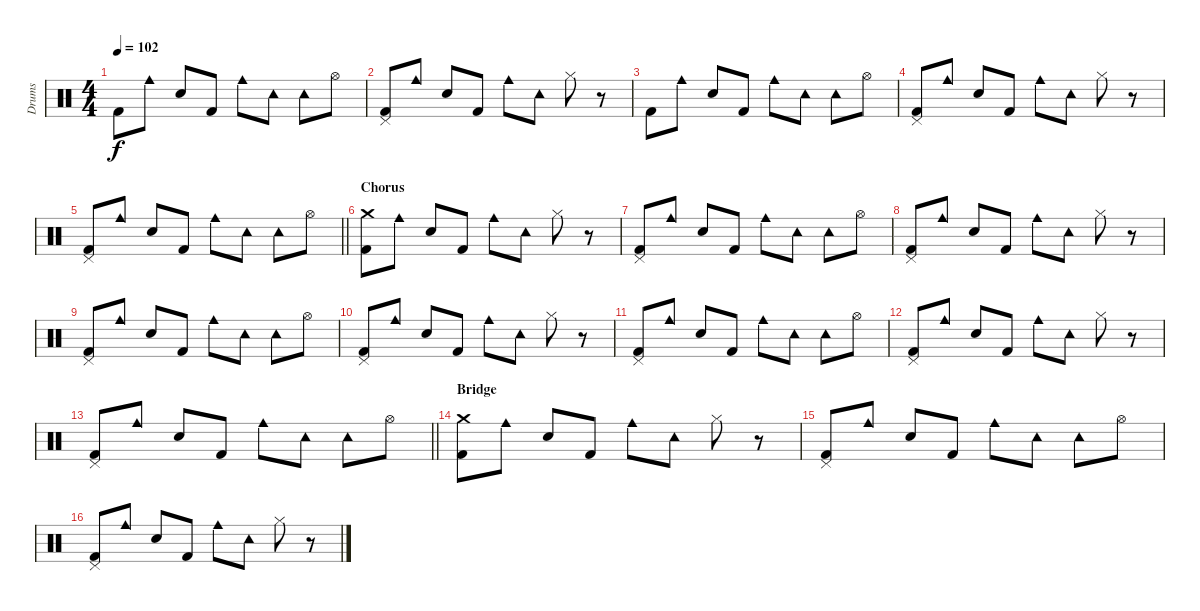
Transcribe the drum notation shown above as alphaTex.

\track ("Drums" "Drums") {instrument percussion}
\staff {score}
\articulation defaults
\ts (4 4)
\tempo 102
\clef neutral
\ks c "Kick (hit) 2".8{dy f} "Cowbell medium (hit)".8 "Electric Snare (hit)".8 "Kick (hit) 2".8 "Cowbell medium (hit)".8 "Tambourine (hit)".8 "Tambourine (hit)".8 "Hi-Hat (open)".8
|
("Pedal Hi-Hat (hit)" "Kick (hit) 2").8 "Cowbell medium (hit)".8 "Electric Snare (hit)".8 "Kick (hit) 2".8 "Cowbell medium (hit)".8 "Tambourine (hit)".8 "Hi-Hat (closed)".8 r.8 |
"Kick (hit) 2".8 "Cowbell medium (hit)".8 "Electric Snare (hit)".8 "Kick (hit) 2".8 "Cowbell medium (hit)".8 "Tambourine (hit)".8 "Tambourine (hit)".8 "Hi-Hat (open)".8 |
("Pedal Hi-Hat (hit)" "Kick (hit) 2").8 "Cowbell medium (hit)".8 "Electric Snare (hit)".8 "Kick (hit) 2".8 "Cowbell medium (hit)".8 "Tambourine (hit)".8 "Hi-Hat (closed)".8 r.8 |
\barLineRight lightlight
("Pedal Hi-Hat (hit)" "Kick (hit) 2").8 "Cowbell medium (hit)".8 "Electric Snare (hit)".8 "Kick (hit) 2".8 "Cowbell medium (hit)".8 "Tambourine (hit)".8 "Tambourine (hit)".8 "Hi-Hat (open)".8 |
\section ("" "Chorus")
("Crash medium (hit)" "Kick (hit) 2").8 "Cowbell medium (hit)".8 "Electric Snare (hit)".8 "Kick (hit) 2".8 "Cowbell medium (hit)".8 "Tambourine (hit)".8 "Hi-Hat (closed)".8 r.8 |
("Pedal Hi-Hat (hit)" "Kick (hit) 2").8 "Cowbell medium (hit)".8 "Electric Snare (hit)".8 "Kick (hit) 2".8 "Cowbell medium (hit)".8 "Tambourine (hit)".8 "Tambourine (hit)".8 "Hi-Hat (open)".8 |
("Pedal Hi-Hat (hit)" "Kick (hit) 2").8 "Cowbell medium (hit)".8 "Electric Snare (hit)".8 "Kick (hit) 2".8 "Cowbell medium (hit)".8 "Tambourine (hit)".8 "Hi-Hat (closed)".8 r.8 |
("Pedal Hi-Hat (hit)" "Kick (hit) 2").8 "Cowbell medium (hit)".8 "Electric Snare (hit)".8 "Kick (hit) 2".8 "Cowbell medium (hit)".8 "Tambourine (hit)".8 "Tambourine (hit)".8 "Hi-Hat (open)".8 |
("Pedal Hi-Hat (hit)" "Kick (hit) 2").8 "Cowbell medium (hit)".8 "Electric Snare (hit)".8 "Kick (hit) 2".8 "Cowbell medium (hit)".8 "Tambourine (hit)".8 "Hi-Hat (closed)".8 r.8 |
("Pedal Hi-Hat (hit)" "Kick (hit) 2").8 "Cowbell medium (hit)".8 "Electric Snare (hit)".8 "Kick (hit) 2".8 "Cowbell medium (hit)".8 "Tambourine (hit)".8 "Tambourine (hit)".8 "Hi-Hat (open)".8 |
("Pedal Hi-Hat (hit)" "Kick (hit) 2").8 "Cowbell medium (hit)".8 "Electric Snare (hit)".8 "Kick (hit) 2".8 "Cowbell medium (hit)".8 "Tambourine (hit)".8 "Hi-Hat (closed)".8 r.8 |
\barLineRight lightlight
("Pedal Hi-Hat (hit)" "Kick (hit) 2").8 "Cowbell medium (hit)".8 "Electric Snare (hit)".8 "Kick (hit) 2".8 "Cowbell medium (hit)".8 "Tambourine (hit)".8 "Tambourine (hit)".8 "Hi-Hat (open)".8 |
\section ("" "Bridge")
("Crash medium (hit)" "Kick (hit) 2").8 "Cowbell medium (hit)".8 "Electric Snare (hit)".8 "Kick (hit) 2".8 "Cowbell medium (hit)".8 "Tambourine (hit)".8 "Hi-Hat (closed)".8 r.8 |
("Pedal Hi-Hat (hit)" "Kick (hit) 2").8 "Cowbell medium (hit)".8 "Electric Snare (hit)".8 "Kick (hit) 2".8 "Cowbell medium (hit)".8 "Tambourine (hit)".8 "Tambourine (hit)".8 "Hi-Hat (open)".8 |
("Pedal Hi-Hat (hit)" "Kick (hit) 2").8 "Cowbell medium (hit)".8 "Electric Snare (hit)".8 "Kick (hit) 2".8 "Cowbell medium (hit)".8 "Tambourine (hit)".8 "Hi-Hat (closed)".8 r.8
